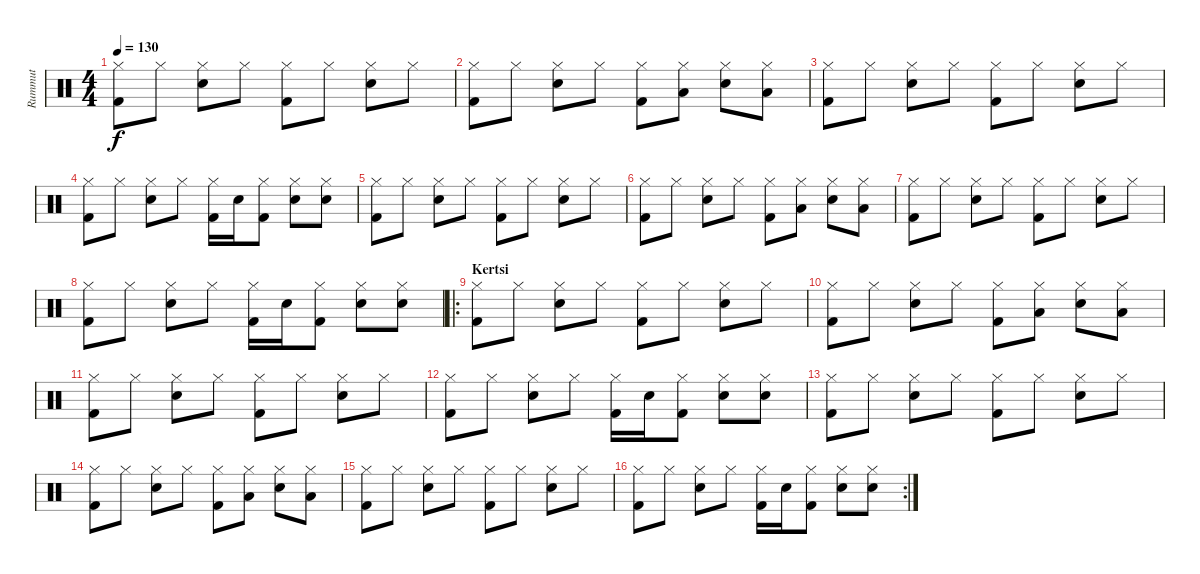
\track ("Rummut" "Rummut") {instrument percussion}
\staff {score}
\articulation defaults
\ts (4 4)
\tempo 130
\clef neutral
\ks c
("Hi-Hat (closed)" "Kick (hit) 2").8{dy f} "Hi-Hat (closed)".8 ("Hi-Hat (closed)" "Snare (hit) 2").8 "Hi-Hat (closed)".8 ("Hi-Hat (closed)" "Kick (hit) 2").8 "Hi-Hat (closed)".8 ("Hi-Hat (closed)" "Snare (hit) 2").8 "Hi-Hat (closed)".8 |
("Hi-Hat (closed)" "Kick (hit) 2").8 "Hi-Hat (closed)".8 ("Hi-Hat (closed)" "Snare (hit) 2").8 "Hi-Hat (closed)".8 ("Hi-Hat (closed)" "Kick (hit) 2").8 ("Hi-Hat (closed)" "Low Tom (hit)").8 ("Hi-Hat (closed)" "Snare (hit) 2").8 ("Hi-Hat (closed)" "Low Tom (hit)").8 |
("Hi-Hat (closed)" "Kick (hit) 2").8 "Hi-Hat (closed)".8 ("Hi-Hat (closed)" "Snare (hit) 2").8 "Hi-Hat (closed)".8 ("Hi-Hat (closed)" "Kick (hit) 2").8 "Hi-Hat (closed)".8 ("Hi-Hat (closed)" "Snare (hit) 2").8 "Hi-Hat (closed)".8 |
("Hi-Hat (closed)" "Kick (hit) 2").8 "Hi-Hat (closed)".8 ("Hi-Hat (closed)" "Snare (hit) 2").8 "Hi-Hat (closed)".8 ("Hi-Hat (closed)" "Kick (hit) 2").16 "Snare (hit) 2".16 ("Hi-Hat (closed)" "Kick (hit) 2").8 ("Hi-Hat (closed)" "Snare (hit) 2").8 ("Hi-Hat (closed)" "Snare (hit) 2").8 |
("Hi-Hat (closed)" "Kick (hit) 2").8 "Hi-Hat (closed)".8 ("Hi-Hat (closed)" "Snare (hit) 2").8 "Hi-Hat (closed)".8 ("Hi-Hat (closed)" "Kick (hit) 2").8 "Hi-Hat (closed)".8 ("Hi-Hat (closed)" "Snare (hit) 2").8 "Hi-Hat (closed)".8 |
("Hi-Hat (closed)" "Kick (hit) 2").8 "Hi-Hat (closed)".8 ("Hi-Hat (closed)" "Snare (hit) 2").8 "Hi-Hat (closed)".8 ("Hi-Hat (closed)" "Kick (hit) 2").8 ("Hi-Hat (closed)" "Low Tom (hit)").8 ("Hi-Hat (closed)" "Snare (hit) 2").8 ("Hi-Hat (closed)" "Low Tom (hit)").8 |
("Hi-Hat (closed)" "Kick (hit) 2").8 "Hi-Hat (closed)".8 ("Hi-Hat (closed)" "Snare (hit) 2").8 "Hi-Hat (closed)".8 ("Hi-Hat (closed)" "Kick (hit) 2").8 "Hi-Hat (closed)".8 ("Hi-Hat (closed)" "Snare (hit) 2").8 "Hi-Hat (closed)".8 |
("Hi-Hat (closed)" "Kick (hit) 2").8 "Hi-Hat (closed)".8 ("Hi-Hat (closed)" "Snare (hit) 2").8 "Hi-Hat (closed)".8 ("Hi-Hat (closed)" "Kick (hit) 2").16 "Snare (hit) 2".16 ("Hi-Hat (closed)" "Kick (hit) 2").8 ("Hi-Hat (closed)" "Snare (hit) 2").8 ("Hi-Hat (closed)" "Snare (hit) 2").8 |
\ro
\section ("" "Kertsi")
("Hi-Hat (closed)" "Kick (hit) 2").8 "Hi-Hat (closed)".8 ("Hi-Hat (closed)" "Snare (hit) 2").8 "Hi-Hat (closed)".8 ("Hi-Hat (closed)" "Kick (hit) 2").8 "Hi-Hat (closed)".8 ("Hi-Hat (closed)" "Snare (hit) 2").8 "Hi-Hat (closed)".8 |
("Hi-Hat (closed)" "Kick (hit) 2").8 "Hi-Hat (closed)".8 ("Hi-Hat (closed)" "Snare (hit) 2").8 "Hi-Hat (closed)".8 ("Hi-Hat (closed)" "Kick (hit) 2").8 ("Hi-Hat (closed)" "Low Tom (hit)").8 ("Hi-Hat (closed)" "Snare (hit) 2").8 ("Hi-Hat (closed)" "Low Tom (hit)").8 |
("Hi-Hat (closed)" "Kick (hit) 2").8 "Hi-Hat (closed)".8 ("Hi-Hat (closed)" "Snare (hit) 2").8 "Hi-Hat (closed)".8 ("Hi-Hat (closed)" "Kick (hit) 2").8 "Hi-Hat (closed)".8 ("Hi-Hat (closed)" "Snare (hit) 2").8 "Hi-Hat (closed)".8 |
("Hi-Hat (closed)" "Kick (hit) 2").8 "Hi-Hat (closed)".8 ("Hi-Hat (closed)" "Snare (hit) 2").8 "Hi-Hat (closed)".8 ("Hi-Hat (closed)" "Kick (hit) 2").16 "Snare (hit) 2".16 ("Hi-Hat (closed)" "Kick (hit) 2").8 ("Hi-Hat (closed)" "Snare (hit) 2").8 ("Hi-Hat (closed)" "Snare (hit) 2").8 |
("Hi-Hat (closed)" "Kick (hit) 2").8 "Hi-Hat (closed)".8 ("Hi-Hat (closed)" "Snare (hit) 2").8 "Hi-Hat (closed)".8 ("Hi-Hat (closed)" "Kick (hit) 2").8 "Hi-Hat (closed)".8 ("Hi-Hat (closed)" "Snare (hit) 2").8 "Hi-Hat (closed)".8 |
("Hi-Hat (closed)" "Kick (hit) 2").8 "Hi-Hat (closed)".8 ("Hi-Hat (closed)" "Snare (hit) 2").8 "Hi-Hat (closed)".8 ("Hi-Hat (closed)" "Kick (hit) 2").8 ("Hi-Hat (closed)" "Low Tom (hit)").8 ("Hi-Hat (closed)" "Snare (hit) 2").8 ("Hi-Hat (closed)" "Low Tom (hit)").8 |
("Hi-Hat (closed)" "Kick (hit) 2").8 "Hi-Hat (closed)".8 ("Hi-Hat (closed)" "Snare (hit) 2").8 "Hi-Hat (closed)".8 ("Hi-Hat (closed)" "Kick (hit) 2").8 "Hi-Hat (closed)".8 ("Hi-Hat (closed)" "Snare (hit) 2").8 "Hi-Hat (closed)".8 |
\rc 2
("Hi-Hat (closed)" "Kick (hit) 2").8 "Hi-Hat (closed)".8 ("Hi-Hat (closed)" "Snare (hit) 2").8 "Hi-Hat (closed)".8 ("Hi-Hat (closed)" "Kick (hit) 2").16 "Snare (hit) 2".16 ("Hi-Hat (closed)" "Kick (hit) 2").8 ("Hi-Hat (closed)" "Snare (hit) 2").8 ("Hi-Hat (closed)" "Snare (hit) 2").8
